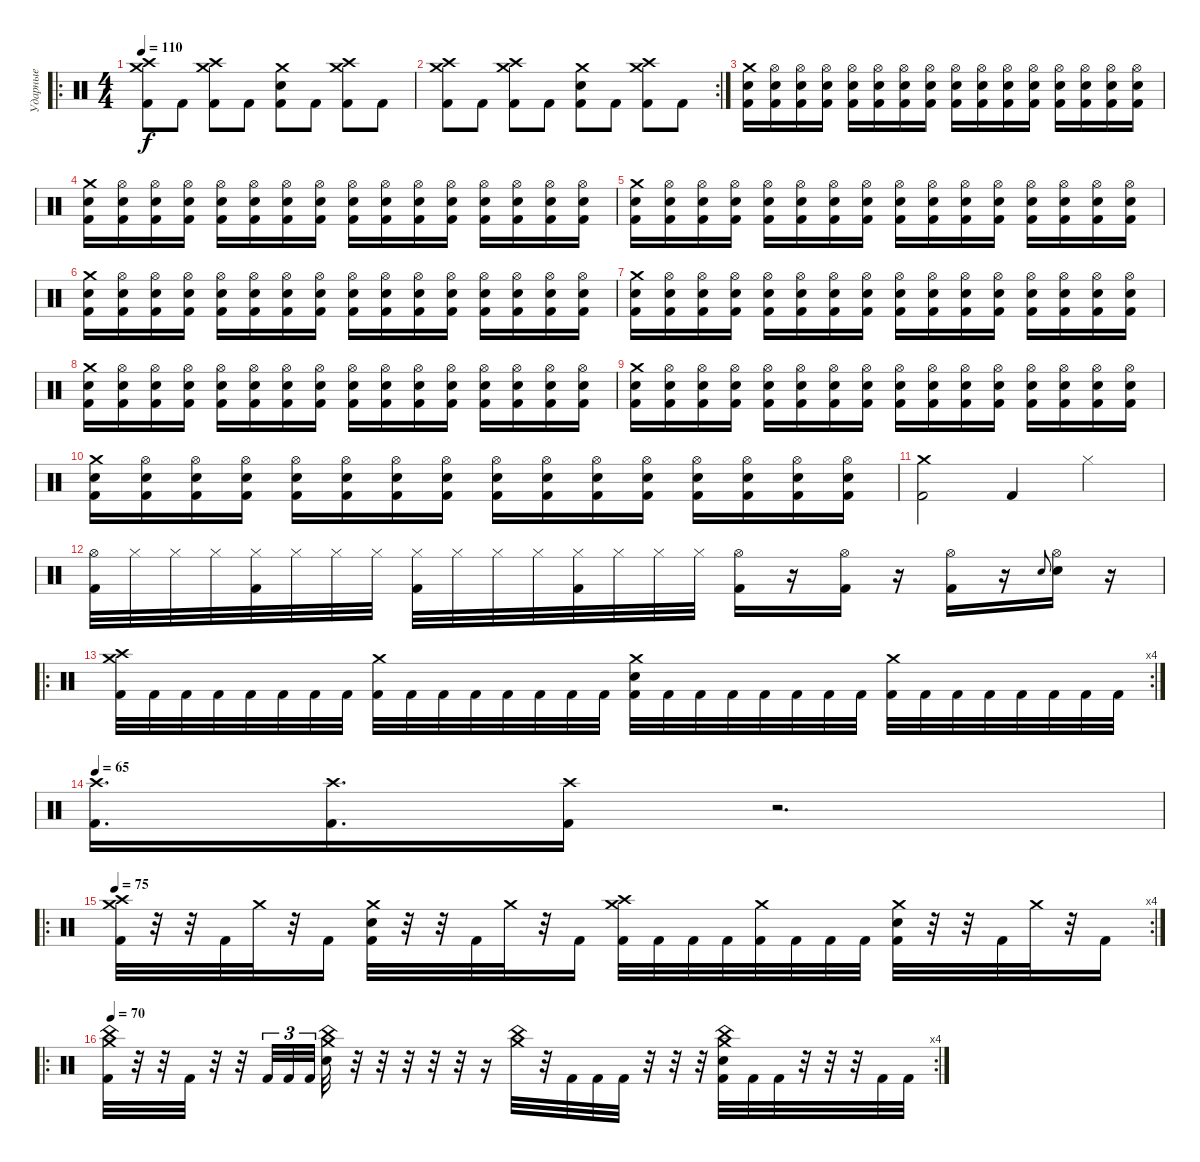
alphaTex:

\track ("Ударные" "Ударные") {instrument percussion}
\staff {score}
\articulation defaults
\ro
\ts (4 4)
\tempo 110
\clef neutral
\ks c
("Crash medium (hit)" "Crash high (hit)" "Kick (hit) 2").8{dy f} "Kick (hit) 2".8 ("Crash medium (hit)" "Crash high (hit)" "Kick (hit) 2").8 "Kick (hit) 2".8 ("Crash medium (hit)" "Electric Snare (hit)" "Kick (hit) 2").8 "Kick (hit) 2".8 ("Crash medium (hit)" "Crash high (hit)" "Kick (hit) 2").8 "Kick (hit) 2".8 |
\rc 2
("Crash medium (hit)" "Crash high (hit)" "Kick (hit) 2").8 "Kick (hit) 2".8 ("Crash medium (hit)" "Crash high (hit)" "Kick (hit) 2").8 "Kick (hit) 2".8 ("Crash medium (hit)" "Electric Snare (hit)" "Kick (hit) 2").8 "Kick (hit) 2".8 ("Crash medium (hit)" "Crash high (hit)" "Kick (hit) 2").8 "Kick (hit) 2".8 |
("Crash medium (hit)" "Electric Snare (hit)" "Kick (hit) 2").16 ("Hi-Hat (open)" "Electric Snare (hit)" "Kick (hit) 2").16 ("Hi-Hat (open)" "Electric Snare (hit)" "Kick (hit) 2").16 ("Hi-Hat (open)" "Electric Snare (hit)" "Kick (hit) 2").16 ("Hi-Hat (open)" "Electric Snare (hit)" "Kick (hit) 2").16 ("Hi-Hat (open)" "Electric Snare (hit)" "Kick (hit) 2").16 ("Hi-Hat (open)" "Electric Snare (hit)" "Kick (hit) 2").16 ("Hi-Hat (open)" "Electric Snare (hit)" "Kick (hit) 2").16 ("Hi-Hat (open)" "Electric Snare (hit)" "Kick (hit) 2").16 ("Hi-Hat (open)" "Electric Snare (hit)" "Kick (hit) 2").16 ("Hi-Hat (open)" "Electric Snare (hit)" "Kick (hit) 2").16 ("Hi-Hat (open)" "Electric Snare (hit)" "Kick (hit) 2").16 ("Hi-Hat (open)" "Electric Snare (hit)" "Kick (hit) 2").16 ("Hi-Hat (open)" "Electric Snare (hit)" "Kick (hit) 2").16 ("Hi-Hat (open)" "Electric Snare (hit)" "Kick (hit) 2").16 ("Hi-Hat (open)" "Electric Snare (hit)" "Kick (hit) 2").16 |
("Crash medium (hit)" "Electric Snare (hit)" "Kick (hit) 2").16 ("Hi-Hat (open)" "Electric Snare (hit)" "Kick (hit) 2").16 ("Hi-Hat (open)" "Electric Snare (hit)" "Kick (hit) 2").16 ("Hi-Hat (open)" "Electric Snare (hit)" "Kick (hit) 2").16 ("Hi-Hat (open)" "Electric Snare (hit)" "Kick (hit) 2").16 ("Hi-Hat (open)" "Electric Snare (hit)" "Kick (hit) 2").16 ("Hi-Hat (open)" "Electric Snare (hit)" "Kick (hit) 2").16 ("Hi-Hat (open)" "Electric Snare (hit)" "Kick (hit) 2").16 ("Hi-Hat (open)" "Electric Snare (hit)" "Kick (hit) 2").16 ("Hi-Hat (open)" "Electric Snare (hit)" "Kick (hit) 2").16 ("Hi-Hat (open)" "Electric Snare (hit)" "Kick (hit) 2").16 ("Hi-Hat (open)" "Electric Snare (hit)" "Kick (hit) 2").16 ("Hi-Hat (open)" "Electric Snare (hit)" "Kick (hit) 2").16 ("Hi-Hat (open)" "Electric Snare (hit)" "Kick (hit) 2").16 ("Hi-Hat (open)" "Electric Snare (hit)" "Kick (hit) 2").16 ("Hi-Hat (open)" "Electric Snare (hit)" "Kick (hit) 2").16 |
("Crash medium (hit)" "Electric Snare (hit)" "Kick (hit) 2").16 ("Hi-Hat (open)" "Electric Snare (hit)" "Kick (hit) 2").16 ("Hi-Hat (open)" "Electric Snare (hit)" "Kick (hit) 2").16 ("Hi-Hat (open)" "Electric Snare (hit)" "Kick (hit) 2").16 ("Hi-Hat (open)" "Electric Snare (hit)" "Kick (hit) 2").16 ("Hi-Hat (open)" "Electric Snare (hit)" "Kick (hit) 2").16 ("Hi-Hat (open)" "Electric Snare (hit)" "Kick (hit) 2").16 ("Hi-Hat (open)" "Electric Snare (hit)" "Kick (hit) 2").16 ("Hi-Hat (open)" "Electric Snare (hit)" "Kick (hit) 2").16 ("Hi-Hat (open)" "Electric Snare (hit)" "Kick (hit) 2").16 ("Hi-Hat (open)" "Electric Snare (hit)" "Kick (hit) 2").16 ("Hi-Hat (open)" "Electric Snare (hit)" "Kick (hit) 2").16 ("Hi-Hat (open)" "Electric Snare (hit)" "Kick (hit) 2").16 ("Hi-Hat (open)" "Electric Snare (hit)" "Kick (hit) 2").16 ("Hi-Hat (open)" "Electric Snare (hit)" "Kick (hit) 2").16 ("Hi-Hat (open)" "Electric Snare (hit)" "Kick (hit) 2").16 |
("Crash medium (hit)" "Electric Snare (hit)" "Kick (hit) 2").16 ("Hi-Hat (open)" "Electric Snare (hit)" "Kick (hit) 2").16 ("Hi-Hat (open)" "Electric Snare (hit)" "Kick (hit) 2").16 ("Hi-Hat (open)" "Electric Snare (hit)" "Kick (hit) 2").16 ("Hi-Hat (open)" "Electric Snare (hit)" "Kick (hit) 2").16 ("Hi-Hat (open)" "Electric Snare (hit)" "Kick (hit) 2").16 ("Hi-Hat (open)" "Electric Snare (hit)" "Kick (hit) 2").16 ("Hi-Hat (open)" "Electric Snare (hit)" "Kick (hit) 2").16 ("Hi-Hat (open)" "Electric Snare (hit)" "Kick (hit) 2").16 ("Hi-Hat (open)" "Electric Snare (hit)" "Kick (hit) 2").16 ("Hi-Hat (open)" "Electric Snare (hit)" "Kick (hit) 2").16 ("Hi-Hat (open)" "Electric Snare (hit)" "Kick (hit) 2").16 ("Hi-Hat (open)" "Electric Snare (hit)" "Kick (hit) 2").16 ("Hi-Hat (open)" "Electric Snare (hit)" "Kick (hit) 2").16 ("Hi-Hat (open)" "Electric Snare (hit)" "Kick (hit) 2").16 ("Hi-Hat (open)" "Electric Snare (hit)" "Kick (hit) 2").16 |
("Crash medium (hit)" "Electric Snare (hit)" "Kick (hit) 2").16 ("Hi-Hat (open)" "Electric Snare (hit)" "Kick (hit) 2").16 ("Hi-Hat (open)" "Electric Snare (hit)" "Kick (hit) 2").16 ("Hi-Hat (open)" "Electric Snare (hit)" "Kick (hit) 2").16 ("Hi-Hat (open)" "Electric Snare (hit)" "Kick (hit) 2").16 ("Hi-Hat (open)" "Electric Snare (hit)" "Kick (hit) 2").16 ("Hi-Hat (open)" "Electric Snare (hit)" "Kick (hit) 2").16 ("Hi-Hat (open)" "Electric Snare (hit)" "Kick (hit) 2").16 ("Hi-Hat (open)" "Electric Snare (hit)" "Kick (hit) 2").16 ("Hi-Hat (open)" "Electric Snare (hit)" "Kick (hit) 2").16 ("Hi-Hat (open)" "Electric Snare (hit)" "Kick (hit) 2").16 ("Hi-Hat (open)" "Electric Snare (hit)" "Kick (hit) 2").16 ("Hi-Hat (open)" "Electric Snare (hit)" "Kick (hit) 2").16 ("Hi-Hat (open)" "Electric Snare (hit)" "Kick (hit) 2").16 ("Hi-Hat (open)" "Electric Snare (hit)" "Kick (hit) 2").16 ("Hi-Hat (open)" "Electric Snare (hit)" "Kick (hit) 2").16 |
("Crash medium (hit)" "Electric Snare (hit)" "Kick (hit) 2").16 ("Hi-Hat (open)" "Electric Snare (hit)" "Kick (hit) 2").16 ("Hi-Hat (open)" "Electric Snare (hit)" "Kick (hit) 2").16 ("Hi-Hat (open)" "Electric Snare (hit)" "Kick (hit) 2").16 ("Hi-Hat (open)" "Electric Snare (hit)" "Kick (hit) 2").16 ("Hi-Hat (open)" "Electric Snare (hit)" "Kick (hit) 2").16 ("Hi-Hat (open)" "Electric Snare (hit)" "Kick (hit) 2").16 ("Hi-Hat (open)" "Electric Snare (hit)" "Kick (hit) 2").16 ("Hi-Hat (open)" "Electric Snare (hit)" "Kick (hit) 2").16 ("Hi-Hat (open)" "Electric Snare (hit)" "Kick (hit) 2").16 ("Hi-Hat (open)" "Electric Snare (hit)" "Kick (hit) 2").16 ("Hi-Hat (open)" "Electric Snare (hit)" "Kick (hit) 2").16 ("Hi-Hat (open)" "Electric Snare (hit)" "Kick (hit) 2").16 ("Hi-Hat (open)" "Electric Snare (hit)" "Kick (hit) 2").16 ("Hi-Hat (open)" "Electric Snare (hit)" "Kick (hit) 2").16 ("Hi-Hat (open)" "Electric Snare (hit)" "Kick (hit) 2").16 |
("Crash medium (hit)" "Electric Snare (hit)" "Kick (hit) 2").16 ("Hi-Hat (open)" "Electric Snare (hit)" "Kick (hit) 2").16 ("Hi-Hat (open)" "Electric Snare (hit)" "Kick (hit) 2").16 ("Hi-Hat (open)" "Electric Snare (hit)" "Kick (hit) 2").16 ("Hi-Hat (open)" "Electric Snare (hit)" "Kick (hit) 2").16 ("Hi-Hat (open)" "Electric Snare (hit)" "Kick (hit) 2").16 ("Hi-Hat (open)" "Electric Snare (hit)" "Kick (hit) 2").16 ("Hi-Hat (open)" "Electric Snare (hit)" "Kick (hit) 2").16 ("Hi-Hat (open)" "Electric Snare (hit)" "Kick (hit) 2").16 ("Hi-Hat (open)" "Electric Snare (hit)" "Kick (hit) 2").16 ("Hi-Hat (open)" "Electric Snare (hit)" "Kick (hit) 2").16 ("Hi-Hat (open)" "Electric Snare (hit)" "Kick (hit) 2").16 ("Hi-Hat (open)" "Electric Snare (hit)" "Kick (hit) 2").16 ("Hi-Hat (open)" "Electric Snare (hit)" "Kick (hit) 2").16 ("Hi-Hat (open)" "Electric Snare (hit)" "Kick (hit) 2").16 ("Hi-Hat (open)" "Electric Snare (hit)" "Kick (hit) 2").16 |
("Crash medium (hit)" "Electric Snare (hit)" "Kick (hit) 2").16 ("Hi-Hat (open)" "Electric Snare (hit)" "Kick (hit) 2").16 ("Hi-Hat (open)" "Electric Snare (hit)" "Kick (hit) 2").16 ("Hi-Hat (open)" "Electric Snare (hit)" "Kick (hit) 2").16 ("Hi-Hat (open)" "Electric Snare (hit)" "Kick (hit) 2").16 ("Hi-Hat (open)" "Electric Snare (hit)" "Kick (hit) 2").16 ("Hi-Hat (open)" "Electric Snare (hit)" "Kick (hit) 2").16 ("Hi-Hat (open)" "Electric Snare (hit)" "Kick (hit) 2").16 ("Hi-Hat (open)" "Electric Snare (hit)" "Kick (hit) 2").16 ("Hi-Hat (open)" "Electric Snare (hit)" "Kick (hit) 2").16 ("Hi-Hat (open)" "Electric Snare (hit)" "Kick (hit) 2").16 ("Hi-Hat (open)" "Electric Snare (hit)" "Kick (hit) 2").16 ("Hi-Hat (open)" "Electric Snare (hit)" "Kick (hit) 2").16 ("Hi-Hat (open)" "Electric Snare (hit)" "Kick (hit) 2").16 ("Hi-Hat (open)" "Electric Snare (hit)" "Kick (hit) 2").16 ("Hi-Hat (open)" "Electric Snare (hit)" "Kick (hit) 2").16 |
("Crash medium (hit)" "Kick (hit) 2").2 "Kick (hit) 2".4 "Hi-Hat (closed)".4 |
("Hi-Hat (open)" "Kick (hit) 2").32 "Hi-Hat (closed)".32 "Hi-Hat (closed)".32 "Hi-Hat (closed)".32 ("Hi-Hat (closed)" "Kick (hit) 2").32 "Hi-Hat (closed)".32 "Hi-Hat (closed)".32 "Hi-Hat (closed)".32 ("Hi-Hat (closed)" "Kick (hit) 2").32 "Hi-Hat (closed)".32 "Hi-Hat (closed)".32 "Hi-Hat (closed)".32 ("Hi-Hat (closed)" "Kick (hit) 2").32 "Hi-Hat (closed)".32 "Hi-Hat (closed)".32 "Hi-Hat (closed)".32 ("Hi-Hat (open)" "Kick (hit) 2").16 r.16 ("Hi-Hat (open)" "Kick (hit) 2").16 r.16 ("Hi-Hat (open)" "Kick (hit) 2").16 r.16 "Electric Snare (hit)".8{gr onbeat} ("Hi-Hat (open)" "Electric Snare (hit)").16 r.16 |
\ro
\rc 4
("Crash medium (hit)" "Crash high (hit)" "Kick (hit) 2").32 "Kick (hit) 2".32 "Kick (hit) 2".32 "Kick (hit) 2".32 "Kick (hit) 2".32 "Kick (hit) 2".32 "Kick (hit) 2".32 "Kick (hit) 2".32 ("Crash medium (hit)" "Kick (hit) 2").32 "Kick (hit) 2".32 "Kick (hit) 2".32 "Kick (hit) 2".32 "Kick (hit) 2".32 "Kick (hit) 2".32 "Kick (hit) 2".32 "Kick (hit) 2".32 ("Crash medium (hit)" "Electric Snare (hit)" "Kick (hit) 2").32 "Kick (hit) 2".32 "Kick (hit) 2".32 "Kick (hit) 2".32 "Kick (hit) 2".32 "Kick (hit) 2".32 "Kick (hit) 2".32 "Kick (hit) 2".32 ("Crash medium (hit)" "Kick (hit) 2").32 "Kick (hit) 2".32 "Kick (hit) 2".32 "Kick (hit) 2".32 "Kick (hit) 2".32 "Kick (hit) 2".32 "Kick (hit) 2".32 "Kick (hit) 2".32 |
\tempo 65
("Crash high (hit)" "Kick (hit) 2").16{d} ("Crash high (hit)" "Kick (hit) 2").16{d} ("Crash high (hit)" "Kick (hit) 2").16 r.2{d} |
\ro
\rc 4
\tempo 75
("Crash medium (hit)" "Crash high (hit)" "Kick (hit) 2").32 r.32 r.32 "Kick (hit) 2".32 "Crash medium (hit)".32 r.32 "Kick (hit) 2".16 ("Crash medium (hit)" "Electric Snare (hit)" "Kick (hit) 2").32 r.32 r.32 "Kick (hit) 2".32 "Crash medium (hit)".32 r.32 "Kick (hit) 2".16 ("Crash medium (hit)" "Crash high (hit)" "Kick (hit) 2").32 "Kick (hit) 2".32 "Kick (hit) 2".32 "Kick (hit) 2".32 ("Crash medium (hit)" "Kick (hit) 2").32 "Kick (hit) 2".32 "Kick (hit) 2".32 "Kick (hit) 2".32 ("Crash medium (hit)" "Electric Snare (hit)" "Kick (hit) 2").32 r.32 r.32 "Kick (hit) 2".32 "Crash medium (hit)".32 r.32 "Kick (hit) 2".16 |
\ro
\rc 4
\tempo 70
("China (hit)" "Crash medium (hit)" "Kick (hit) 2").32 r.32 r.32 "Kick (hit) 2".32 r.32 r.32 "Kick (hit) 2".32{tu (3 2)} "Kick (hit) 2".32{tu (3 2)} "Kick (hit) 2".32{tu (3 2)} ("China (hit)" "Crash medium (hit)" "Electric Snare (hit)").32 r.32 r.32 r.32 r.32 r.32 r.16 ("China (hit)" "Crash medium (hit)").32 r.32 "Kick (hit) 2".32 "Kick (hit) 2".32 "Kick (hit) 2".32 r.32 r.32 r.32 ("China (hit)" "Crash medium (hit)" "Electric Snare (hit)" "Kick (hit) 2").32 "Kick (hit) 2".32 "Kick (hit) 2".32 r.32 r.32 r.32 "Kick (hit) 2".32 "Kick (hit) 2".32
